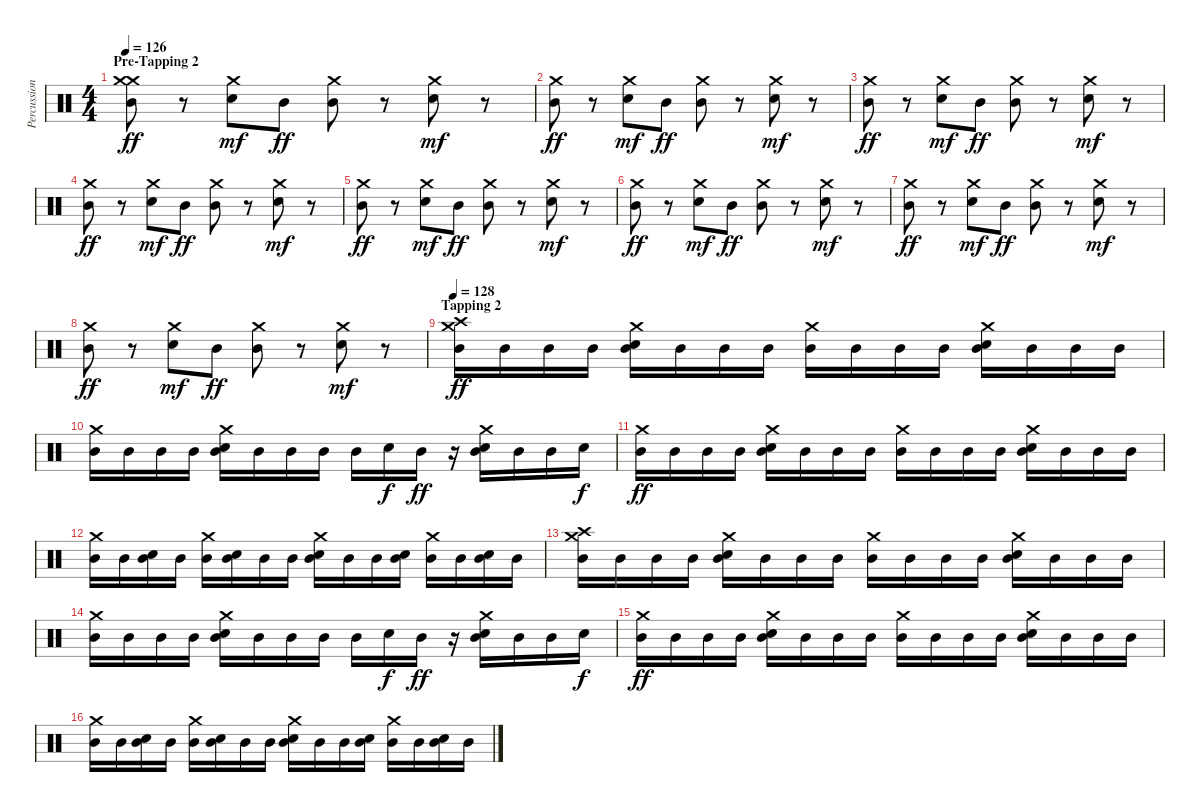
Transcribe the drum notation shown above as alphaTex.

\track ("Percussion" "Percussion") {instrument percussion}
\staff {score}
\articulation defaults
\ts (4 4)
\section ("" "Pre-Tapping 2")
\tempo 126
\clef neutral
\ks c
("Crash medium (hit)" "Crash medium (hit)" "Mid Tom (hit)").8{dy ff} r.8 ("Crash medium (hit)" "Electric Snare (hit)").8{dy mf} "Mid Tom (hit)".8{dy ff} ("Crash medium (hit)" "Mid Tom (hit)").8 r.8 ("Crash medium (hit)" "Electric Snare (hit)").8{dy mf} r.8 |
("Crash medium (hit)" "Mid Tom (hit)").8{dy ff} r.8 ("Crash medium (hit)" "Electric Snare (hit)").8{dy mf} "Mid Tom (hit)".8{dy ff} ("Crash medium (hit)" "Mid Tom (hit)").8 r.8 ("Crash medium (hit)" "Electric Snare (hit)").8{dy mf} r.8 |
("Crash medium (hit)" "Mid Tom (hit)").8{dy ff} r.8 ("Crash medium (hit)" "Electric Snare (hit)").8{dy mf} "Mid Tom (hit)".8{dy ff} ("Crash medium (hit)" "Mid Tom (hit)").8 r.8 ("Crash medium (hit)" "Electric Snare (hit)").8{dy mf} r.8 |
("Crash medium (hit)" "Mid Tom (hit)").8{dy ff} r.8 ("Crash medium (hit)" "Electric Snare (hit)").8{dy mf} "Mid Tom (hit)".8{dy ff} ("Crash medium (hit)" "Mid Tom (hit)").8 r.8 ("Crash medium (hit)" "Electric Snare (hit)").8{dy mf} r.8 |
("Crash medium (hit)" "Mid Tom (hit)").8{dy ff} r.8 ("Crash medium (hit)" "Electric Snare (hit)").8{dy mf} "Mid Tom (hit)".8{dy ff} ("Crash medium (hit)" "Mid Tom (hit)").8 r.8 ("Crash medium (hit)" "Electric Snare (hit)").8{dy mf} r.8 |
("Crash medium (hit)" "Mid Tom (hit)").8{dy ff} r.8 ("Crash medium (hit)" "Electric Snare (hit)").8{dy mf} "Mid Tom (hit)".8{dy ff} ("Crash medium (hit)" "Mid Tom (hit)").8 r.8 ("Crash medium (hit)" "Electric Snare (hit)").8{dy mf} r.8 |
("Crash medium (hit)" "Mid Tom (hit)").8{dy ff} r.8 ("Crash medium (hit)" "Electric Snare (hit)").8{dy mf} "Mid Tom (hit)".8{dy ff} ("Crash medium (hit)" "Mid Tom (hit)").8 r.8 ("Crash medium (hit)" "Electric Snare (hit)").8{dy mf} r.8 |
("Crash medium (hit)" "Mid Tom (hit)").8{dy ff} r.8 ("Crash medium (hit)" "Electric Snare (hit)").8{dy mf} "Mid Tom (hit)".8{dy ff} ("Crash medium (hit)" "Mid Tom (hit)").8 r.8 ("Crash medium (hit)" "Electric Snare (hit)").8{dy mf} r.8 |
\section ("" "Tapping 2")
\tempo 128
("Crash medium (hit)" "Crash high (hit)" "Mid Tom (hit)").16{dy ff} "Mid Tom (hit)".16 "Mid Tom (hit)".16 "Mid Tom (hit)".16 ("Crash medium (hit)" "Electric Snare (hit)" "Mid Tom (hit)").16 "Mid Tom (hit)".16 "Mid Tom (hit)".16 "Mid Tom (hit)".16 ("Crash medium (hit)" "Mid Tom (hit)").16 "Mid Tom (hit)".16 "Mid Tom (hit)".16 "Mid Tom (hit)".16 ("Crash medium (hit)" "Electric Snare (hit)" "Mid Tom (hit)").16 "Mid Tom (hit)".16 "Mid Tom (hit)".16 "Mid Tom (hit)".16 |
("Crash medium (hit)" "Mid Tom (hit)").16 "Mid Tom (hit)".16 "Mid Tom (hit)".16 "Mid Tom (hit)".16 ("Crash medium (hit)" "Electric Snare (hit)" "Mid Tom (hit)").16 "Mid Tom (hit)".16 "Mid Tom (hit)".16 "Mid Tom (hit)".16 "Mid Tom (hit)".16 "Electric Snare (hit)".16{dy f} "Mid Tom (hit)".16{dy ff} r.16 ("Crash medium (hit)" "Electric Snare (hit)" "Mid Tom (hit)").16 "Mid Tom (hit)".16 "Mid Tom (hit)".16 "Electric Snare (hit)".16{dy f} |
("Crash medium (hit)" "Mid Tom (hit)").16{dy ff} "Mid Tom (hit)".16 "Mid Tom (hit)".16 "Mid Tom (hit)".16 ("Crash medium (hit)" "Electric Snare (hit)" "Mid Tom (hit)").16 "Mid Tom (hit)".16 "Mid Tom (hit)".16 "Mid Tom (hit)".16 ("Crash medium (hit)" "Mid Tom (hit)").16 "Mid Tom (hit)".16 "Mid Tom (hit)".16 "Mid Tom (hit)".16 ("Crash medium (hit)" "Electric Snare (hit)" "Mid Tom (hit)").16 "Mid Tom (hit)".16 "Mid Tom (hit)".16 "Mid Tom (hit)".16 |
("Crash medium (hit)" "Mid Tom (hit)").16 "Mid Tom (hit)".16 ("Electric Snare (hit)" "Mid Tom (hit)").16 "Mid Tom (hit)".16 ("Crash medium (hit)" "Mid Tom (hit)").16 ("Electric Snare (hit)" "Mid Tom (hit)").16 "Mid Tom (hit)".16 "Mid Tom (hit)".16 ("Crash medium (hit)" "Electric Snare (hit)" "Mid Tom (hit)").16 "Mid Tom (hit)".16 "Mid Tom (hit)".16 ("Electric Snare (hit)" "Mid Tom (hit)").16 ("Crash medium (hit)" "Mid Tom (hit)").16 "Mid Tom (hit)".16 ("Electric Snare (hit)" "Mid Tom (hit)").16 "Mid Tom (hit)".16 |
("Crash medium (hit)" "Crash high (hit)" "Mid Tom (hit)").16 "Mid Tom (hit)".16 "Mid Tom (hit)".16 "Mid Tom (hit)".16 ("Crash medium (hit)" "Electric Snare (hit)" "Mid Tom (hit)").16 "Mid Tom (hit)".16 "Mid Tom (hit)".16 "Mid Tom (hit)".16 ("Crash medium (hit)" "Mid Tom (hit)").16 "Mid Tom (hit)".16 "Mid Tom (hit)".16 "Mid Tom (hit)".16 ("Crash medium (hit)" "Electric Snare (hit)" "Mid Tom (hit)").16 "Mid Tom (hit)".16 "Mid Tom (hit)".16 "Mid Tom (hit)".16 |
("Crash medium (hit)" "Mid Tom (hit)").16 "Mid Tom (hit)".16 "Mid Tom (hit)".16 "Mid Tom (hit)".16 ("Crash medium (hit)" "Electric Snare (hit)" "Mid Tom (hit)").16 "Mid Tom (hit)".16 "Mid Tom (hit)".16 "Mid Tom (hit)".16 "Mid Tom (hit)".16 "Electric Snare (hit)".16{dy f} "Mid Tom (hit)".16{dy ff} r.16 ("Crash medium (hit)" "Electric Snare (hit)" "Mid Tom (hit)").16 "Mid Tom (hit)".16 "Mid Tom (hit)".16 "Electric Snare (hit)".16{dy f} |
("Crash medium (hit)" "Mid Tom (hit)").16{dy ff} "Mid Tom (hit)".16 "Mid Tom (hit)".16 "Mid Tom (hit)".16 ("Crash medium (hit)" "Electric Snare (hit)" "Mid Tom (hit)").16 "Mid Tom (hit)".16 "Mid Tom (hit)".16 "Mid Tom (hit)".16 ("Crash medium (hit)" "Mid Tom (hit)").16 "Mid Tom (hit)".16 "Mid Tom (hit)".16 "Mid Tom (hit)".16 ("Crash medium (hit)" "Electric Snare (hit)" "Mid Tom (hit)").16 "Mid Tom (hit)".16 "Mid Tom (hit)".16 "Mid Tom (hit)".16 |
("Crash medium (hit)" "Mid Tom (hit)").16 "Mid Tom (hit)".16 ("Electric Snare (hit)" "Mid Tom (hit)").16 "Mid Tom (hit)".16 ("Crash medium (hit)" "Mid Tom (hit)").16 ("Electric Snare (hit)" "Mid Tom (hit)").16 "Mid Tom (hit)".16 "Mid Tom (hit)".16 ("Crash medium (hit)" "Electric Snare (hit)" "Mid Tom (hit)").16 "Mid Tom (hit)".16 "Mid Tom (hit)".16 ("Electric Snare (hit)" "Mid Tom (hit)").16 ("Crash medium (hit)" "Mid Tom (hit)").16 "Mid Tom (hit)".16 ("Electric Snare (hit)" "Mid Tom (hit)").16 "Mid Tom (hit)".16
